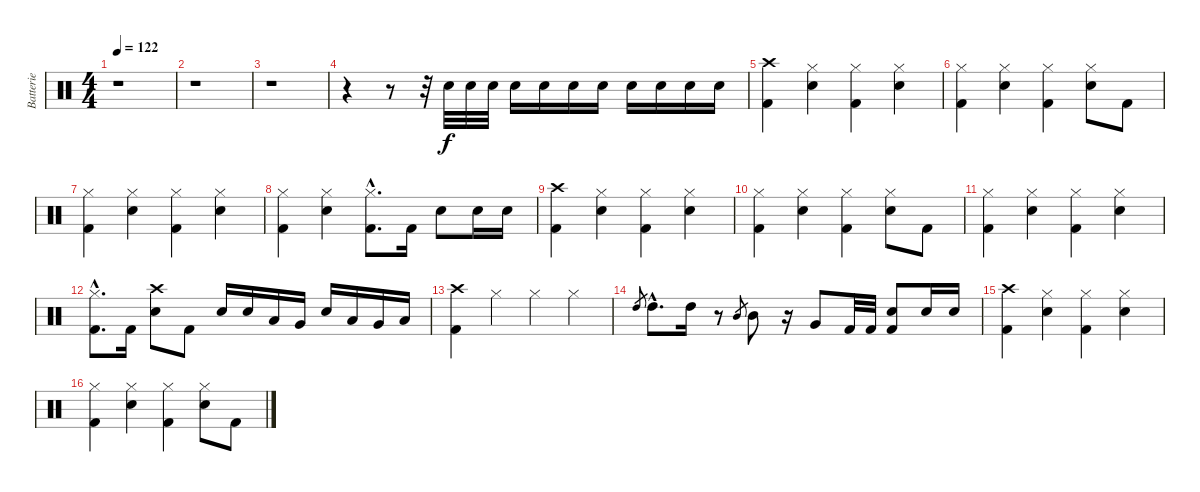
\track ("Batterie" "Batterie") {instrument percussion}
\staff {score}
\articulation defaults
\ts (4 4)
\tempo 122
\clef neutral
\ks c
r.1{dy f} |
r.1 |
r.1 |
r.4 r.8 r.32 "Snare (hit) 2".32 "Snare (hit) 2".32 "Snare (hit) 2".32 "Snare (hit) 2".16 "Snare (hit) 2".16 "Snare (hit) 2".16 "Snare (hit) 2".16 "Snare (hit) 2".16 "Snare (hit) 2".16 "Snare (hit) 2".16 "Snare (hit) 2".16 |
("Crash high (hit)" "Kick (hit) 2").4 ("Hi-Hat (closed)" "Snare (hit) 2").4 ("Hi-Hat (closed)" "Kick (hit) 2").4 ("Hi-Hat (closed)" "Snare (hit) 2").4 |
("Hi-Hat (closed)" "Kick (hit) 2").4 ("Hi-Hat (closed)" "Snare (hit) 2").4 ("Hi-Hat (closed)" "Kick (hit) 2").4 ("Hi-Hat (closed)" "Snare (hit) 2").8 "Kick (hit) 2".8 |
("Hi-Hat (closed)" "Kick (hit) 2").4 ("Hi-Hat (closed)" "Snare (hit) 2").4 ("Hi-Hat (closed)" "Kick (hit) 2").4 ("Hi-Hat (closed)" "Snare (hit) 2").4 |
("Hi-Hat (closed)" "Kick (hit) 2").4 ("Hi-Hat (closed)" "Snare (hit) 2").4 ("Hi-Hat (closed)"{hac} "Kick (hit) 2"{hac}).8{d} "Kick (hit) 2".16 "Snare (hit) 2".8 "Snare (hit) 2".16 "Snare (hit) 2".16 |
("Crash high (hit)" "Kick (hit) 2").4 ("Hi-Hat (closed)" "Snare (hit) 2").4 ("Hi-Hat (closed)" "Kick (hit) 2").4 ("Hi-Hat (closed)" "Snare (hit) 2").4 |
("Hi-Hat (closed)" "Kick (hit) 2").4 ("Hi-Hat (closed)" "Snare (hit) 2").4 ("Hi-Hat (closed)" "Kick (hit) 2").4 ("Hi-Hat (closed)" "Snare (hit) 2").8 "Kick (hit) 2".8 |
("Hi-Hat (closed)" "Kick (hit) 2").4 ("Hi-Hat (closed)" "Snare (hit) 2").4 ("Hi-Hat (closed)" "Kick (hit) 2").4 ("Hi-Hat (closed)" "Snare (hit) 2").4 |
("Hi-Hat (closed)"{hac} "Kick (hit) 2"{hac}).8{d} "Kick (hit) 2".16 ("Crash high (hit)" "Snare (hit) 2").8 "Kick (hit) 2".8 "Snare (hit) 2".16 "Snare (hit) 2".16 "Low Tom (hit)".16 "Very Low Tom (hit)".16 "Snare (hit) 2".16 "Low Tom (hit)".16 "Very Low Tom (hit)".16 "Low Floor Tom (hit)".16 |
("Crash high (hit)" "Kick (hit) 2").4 "Hi-Hat (closed)".4 "Hi-Hat (closed)".4 "Hi-Hat (closed)".4 |
"High Tom (hit)".8{gr} "High Tom (hit)"{hac}.8{d} "High Tom (hit)".16 r.8 "Mid Tom (hit)".8{gr} "Mid Tom (hit)".8 r.16 "Very Low Tom (hit)".8 "Kick (hit) 2".32 "Kick (hit) 2".32 ("Snare (hit) 2" "Kick (hit) 2").8 "Snare (hit) 2".16 "Snare (hit) 2".16 |
("Crash high (hit)" "Kick (hit) 2").4 ("Hi-Hat (closed)" "Snare (hit) 2").4 ("Hi-Hat (closed)" "Kick (hit) 2").4 ("Hi-Hat (closed)" "Snare (hit) 2").4 |
("Hi-Hat (closed)" "Kick (hit) 2").4 ("Hi-Hat (closed)" "Snare (hit) 2").4 ("Hi-Hat (closed)" "Kick (hit) 2").4 ("Hi-Hat (closed)" "Snare (hit) 2").8 "Kick (hit) 2".8
